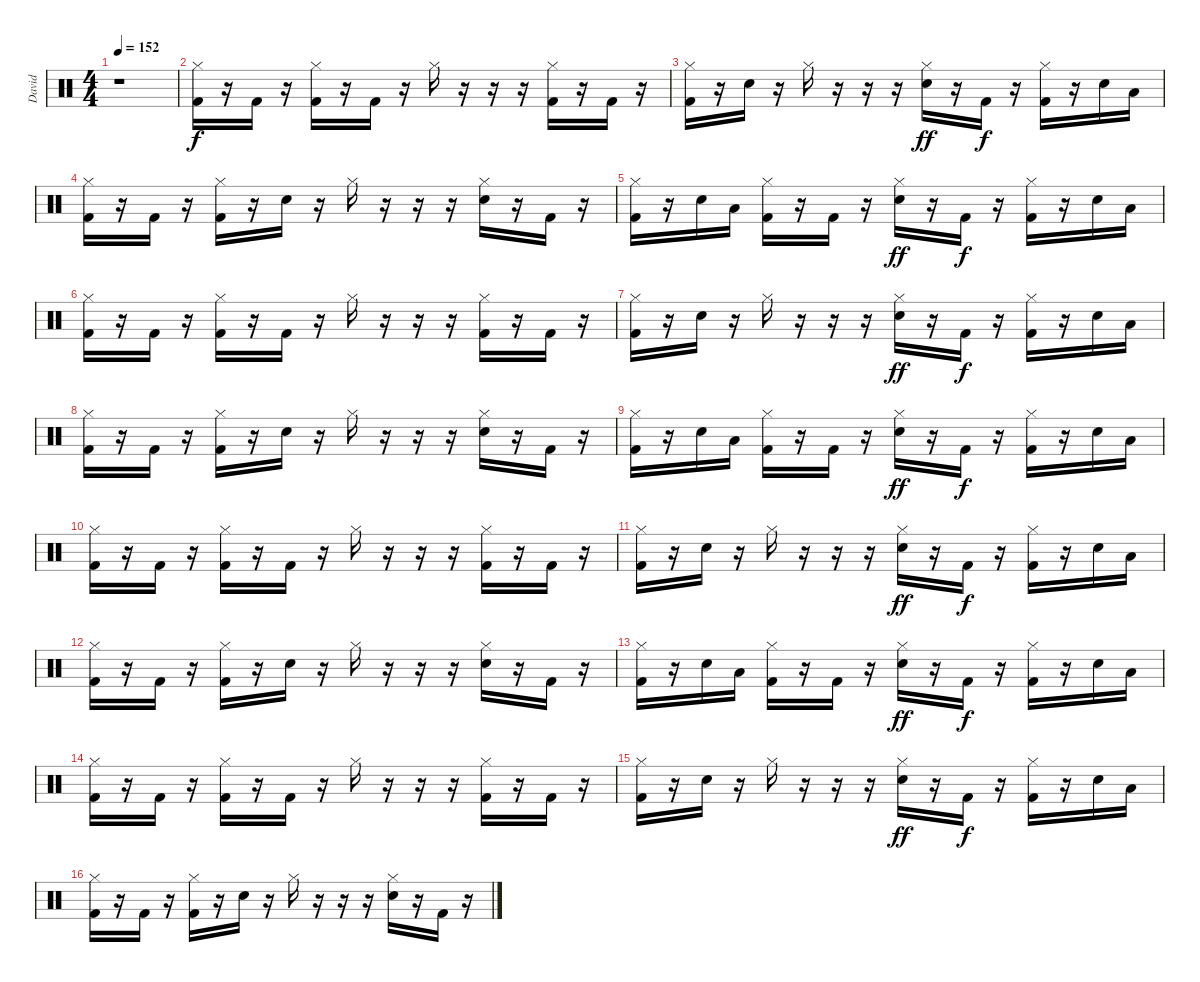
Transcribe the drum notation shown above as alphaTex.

\track ("David" "David") {instrument percussion}
\staff {score}
\articulation defaults
\ts (4 4)
\tempo 152
\clef neutral
\ks c
r.1{dy fff} |
("Hi-Hat (closed)" "Kick (hit) 2").16{dy f} r.16 "Kick (hit) 2".16 r.16 ("Hi-Hat (closed)" "Kick (hit) 2").16 r.16 "Kick (hit) 2".16 r.16 "Hi-Hat (closed)".16 r.16 r.16 r.16 ("Hi-Hat (closed)" "Kick (hit) 2").16 r.16 "Kick (hit) 2".16 r.16 |
("Hi-Hat (closed)" "Kick (hit) 2").16 r.16 "Electric Snare (hit)".16 r.16 "Hi-Hat (closed)".16 r.16 r.16 r.16 ("Hi-Hat (closed)" "Electric Snare (hit)").16{dy ff} r.16 "Kick (hit) 2".16{dy f} r.16 ("Hi-Hat (closed)" "Kick (hit) 2").16 r.16 "Electric Snare (hit)".16 "Low Tom (hit)".16 |
("Hi-Hat (closed)" "Kick (hit) 2").16 r.16 "Kick (hit) 2".16 r.16 ("Hi-Hat (closed)" "Kick (hit) 2").16 r.16 "Electric Snare (hit)".16 r.16 "Hi-Hat (closed)".16 r.16 r.16 r.16 ("Hi-Hat (closed)" "Electric Snare (hit)").16 r.16 "Kick (hit) 2".16 r.16 |
("Hi-Hat (closed)" "Kick (hit) 2").16 r.16 "Electric Snare (hit)".16 "Low Tom (hit)".16 ("Hi-Hat (closed)" "Kick (hit) 2").16 r.16 "Kick (hit) 2".16 r.16 ("Hi-Hat (closed)" "Electric Snare (hit)").16{dy ff} r.16 "Kick (hit) 2".16{dy f} r.16 ("Hi-Hat (closed)" "Kick (hit) 2").16 r.16 "Electric Snare (hit)".16 "Low Tom (hit)".16 |
("Hi-Hat (closed)" "Kick (hit) 2").16 r.16 "Kick (hit) 2".16 r.16 ("Hi-Hat (closed)" "Kick (hit) 2").16 r.16 "Kick (hit) 2".16 r.16 "Hi-Hat (closed)".16 r.16 r.16 r.16 ("Hi-Hat (closed)" "Kick (hit) 2").16 r.16 "Kick (hit) 2".16 r.16 |
("Hi-Hat (closed)" "Kick (hit) 2").16 r.16 "Electric Snare (hit)".16 r.16 "Hi-Hat (closed)".16 r.16 r.16 r.16 ("Hi-Hat (closed)" "Electric Snare (hit)").16{dy ff} r.16 "Kick (hit) 2".16{dy f} r.16 ("Hi-Hat (closed)" "Kick (hit) 2").16 r.16 "Electric Snare (hit)".16 "Low Tom (hit)".16 |
("Hi-Hat (closed)" "Kick (hit) 2").16 r.16 "Kick (hit) 2".16 r.16 ("Hi-Hat (closed)" "Kick (hit) 2").16 r.16 "Electric Snare (hit)".16 r.16 "Hi-Hat (closed)".16 r.16 r.16 r.16 ("Hi-Hat (closed)" "Electric Snare (hit)").16 r.16 "Kick (hit) 2".16 r.16 |
("Hi-Hat (closed)" "Kick (hit) 2").16 r.16 "Electric Snare (hit)".16 "Low Tom (hit)".16 ("Hi-Hat (closed)" "Kick (hit) 2").16 r.16 "Kick (hit) 2".16 r.16 ("Hi-Hat (closed)" "Electric Snare (hit)").16{dy ff} r.16 "Kick (hit) 2".16{dy f} r.16 ("Hi-Hat (closed)" "Kick (hit) 2").16 r.16 "Electric Snare (hit)".16 "Low Tom (hit)".16 |
("Hi-Hat (closed)" "Kick (hit) 2").16 r.16 "Kick (hit) 2".16 r.16 ("Hi-Hat (closed)" "Kick (hit) 2").16 r.16 "Kick (hit) 2".16 r.16 "Hi-Hat (closed)".16 r.16 r.16 r.16 ("Hi-Hat (closed)" "Kick (hit) 2").16 r.16 "Kick (hit) 2".16 r.16 |
("Hi-Hat (closed)" "Kick (hit) 2").16 r.16 "Electric Snare (hit)".16 r.16 "Hi-Hat (closed)".16 r.16 r.16 r.16 ("Hi-Hat (closed)" "Electric Snare (hit)").16{dy ff} r.16 "Kick (hit) 2".16{dy f} r.16 ("Hi-Hat (closed)" "Kick (hit) 2").16 r.16 "Electric Snare (hit)".16 "Low Tom (hit)".16 |
("Hi-Hat (closed)" "Kick (hit) 2").16 r.16 "Kick (hit) 2".16 r.16 ("Hi-Hat (closed)" "Kick (hit) 2").16 r.16 "Electric Snare (hit)".16 r.16 "Hi-Hat (closed)".16 r.16 r.16 r.16 ("Hi-Hat (closed)" "Electric Snare (hit)").16 r.16 "Kick (hit) 2".16 r.16 |
("Hi-Hat (closed)" "Kick (hit) 2").16 r.16 "Electric Snare (hit)".16 "Low Tom (hit)".16 ("Hi-Hat (closed)" "Kick (hit) 2").16 r.16 "Kick (hit) 2".16 r.16 ("Hi-Hat (closed)" "Electric Snare (hit)").16{dy ff} r.16 "Kick (hit) 2".16{dy f} r.16 ("Hi-Hat (closed)" "Kick (hit) 2").16 r.16 "Electric Snare (hit)".16 "Low Tom (hit)".16 |
("Hi-Hat (closed)" "Kick (hit) 2").16 r.16 "Kick (hit) 2".16 r.16 ("Hi-Hat (closed)" "Kick (hit) 2").16 r.16 "Kick (hit) 2".16 r.16 "Hi-Hat (closed)".16 r.16 r.16 r.16 ("Hi-Hat (closed)" "Kick (hit) 2").16 r.16 "Kick (hit) 2".16 r.16 |
("Hi-Hat (closed)" "Kick (hit) 2").16 r.16 "Electric Snare (hit)".16 r.16 "Hi-Hat (closed)".16 r.16 r.16 r.16 ("Hi-Hat (closed)" "Electric Snare (hit)").16{dy ff} r.16 "Kick (hit) 2".16{dy f} r.16 ("Hi-Hat (closed)" "Kick (hit) 2").16 r.16 "Electric Snare (hit)".16 "Low Tom (hit)".16 |
("Hi-Hat (closed)" "Kick (hit) 2").16 r.16 "Kick (hit) 2".16 r.16 ("Hi-Hat (closed)" "Kick (hit) 2").16 r.16 "Electric Snare (hit)".16 r.16 "Hi-Hat (closed)".16 r.16 r.16 r.16 ("Hi-Hat (closed)" "Electric Snare (hit)").16 r.16 "Kick (hit) 2".16 r.16
